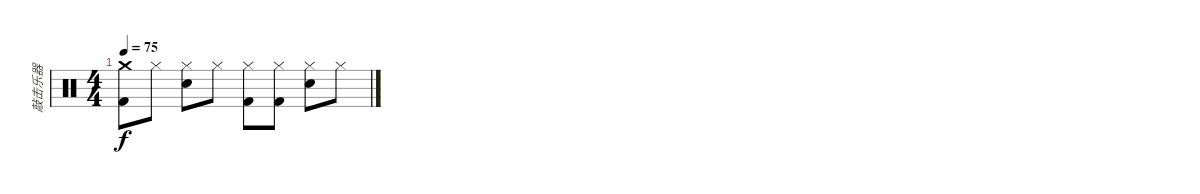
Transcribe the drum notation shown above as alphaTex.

\track ("敲击乐器" "敲击乐器") {instrument percussion}
\staff {score}
\articulation defaults
\ts (4 4)
\tempo 75
\clef neutral
\ks c
("Crash medium (hit)" "Kick (hit) 2").8{dy f} "Hi-Hat (closed)".8 ("Hi-Hat (closed)" "Electric Snare (hit)").8 "Hi-Hat (closed)".8 ("Hi-Hat (closed)" "Kick (hit) 2").8 ("Hi-Hat (closed)" "Kick (hit) 2").8 ("Hi-Hat (closed)" "Electric Snare (hit)").8 "Hi-Hat (closed)".8
